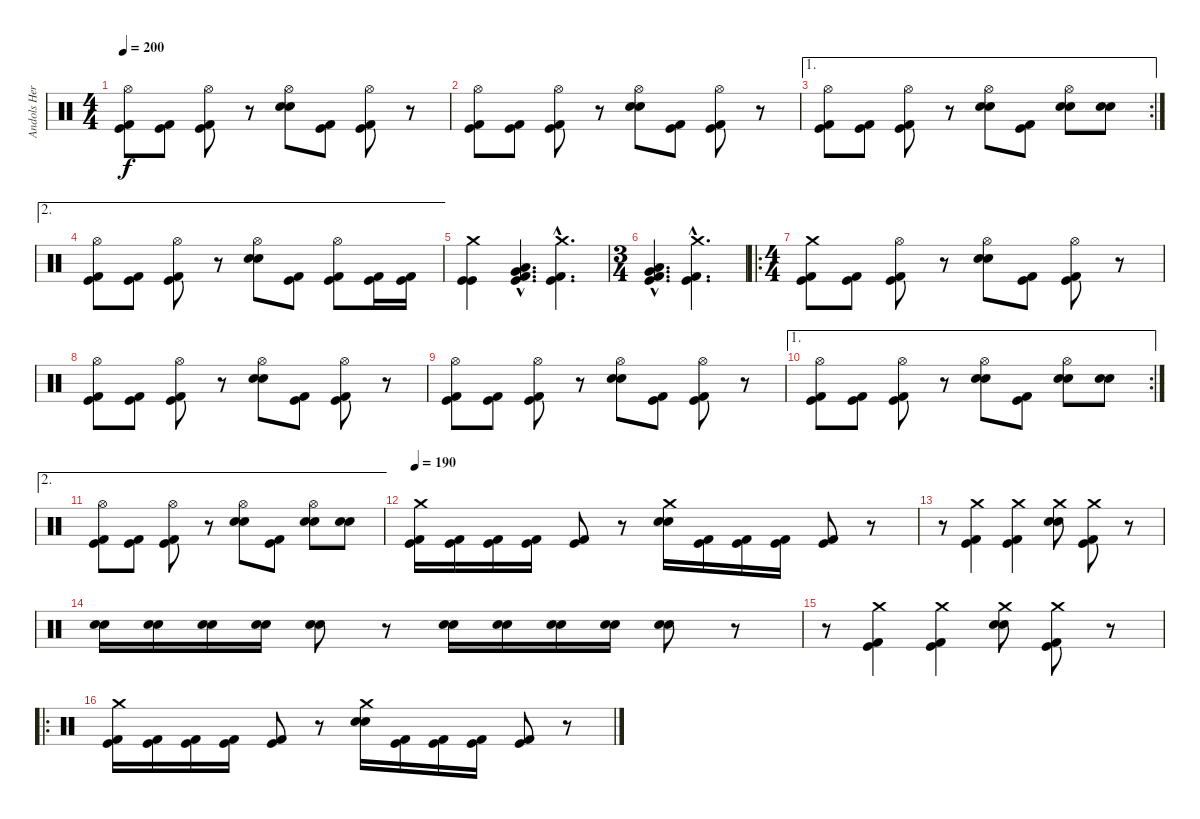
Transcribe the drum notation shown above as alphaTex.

\track ("Andols Herrick" "Andols Her") {instrument percussion}
\staff {score}
\articulation defaults
\ts (4 4)
\tempo 200
\clef neutral
\ks c
("Hi-Hat (open)" "Kick (hit) 2" "Kick (hit)").8{dy f} ("Kick (hit) 2" "Kick (hit)").8 ("Hi-Hat (open)" "Kick (hit) 2" "Kick (hit)").8 r.8 ("Hi-Hat (open)" "Electric Snare (hit)" "Snare (hit) 2").8 ("Kick (hit) 2" "Kick (hit)").8 ("Hi-Hat (open)" "Kick (hit) 2" "Kick (hit)").8 r.8 |
("Hi-Hat (open)" "Kick (hit) 2" "Kick (hit)").8 ("Kick (hit) 2" "Kick (hit)").8 ("Hi-Hat (open)" "Kick (hit) 2" "Kick (hit)").8 r.8 ("Hi-Hat (open)" "Electric Snare (hit)" "Snare (hit) 2").8 ("Kick (hit) 2" "Kick (hit)").8 ("Hi-Hat (open)" "Kick (hit) 2" "Kick (hit)").8 r.8 |
\ae 1
\rc 2
("Hi-Hat (open)" "Kick (hit) 2" "Kick (hit)").8 ("Kick (hit) 2" "Kick (hit)").8 ("Hi-Hat (open)" "Kick (hit) 2" "Kick (hit)").8 r.8 ("Hi-Hat (open)" "Electric Snare (hit)" "Snare (hit) 2").8 ("Kick (hit) 2" "Kick (hit)").8 ("Hi-Hat (open)" "Electric Snare (hit)" "Snare (hit) 2").8 ("Electric Snare (hit)" "Snare (hit) 2").8 |
\ae 2
("Hi-Hat (open)" "Kick (hit) 2" "Kick (hit)").8 ("Kick (hit) 2" "Kick (hit)").8 ("Hi-Hat (open)" "Kick (hit) 2" "Kick (hit)").8 r.8 ("Hi-Hat (open)" "Electric Snare (hit)" "Snare (hit) 2").8 ("Kick (hit) 2" "Kick (hit)").8 ("Hi-Hat (open)" "Kick (hit) 2" "Kick (hit)").8 ("Kick (hit) 2" "Kick (hit)").16 ("Kick (hit) 2" "Kick (hit)").16 |
("Crash medium (hit)" "Kick (hit)" "Kick (hit)").4 ("Low Tom (hit)"{hac} "Very Low Tom (hit)"{hac} "Kick (hit) 2"{hac} "Kick (hit)"{hac}).4{d} ("Crash medium (hit)"{hac} "Kick (hit) 2"{hac} "Kick (hit)"{hac}).4{d} |
\ts (3 4)
("Low Tom (hit)"{hac} "Very Low Tom (hit)"{hac} "Kick (hit) 2"{hac} "Kick (hit)"{hac}).4{d} ("Crash medium (hit)"{hac} "Kick (hit) 2"{hac} "Kick (hit)"{hac}).4{d} |
\ro
\ts (4 4)
("Crash medium (hit)" "Kick (hit) 2" "Kick (hit)").8 ("Kick (hit) 2" "Kick (hit)").8 ("Hi-Hat (open)" "Kick (hit) 2" "Kick (hit)").8 r.8 ("Hi-Hat (open)" "Electric Snare (hit)" "Snare (hit) 2").8 ("Kick (hit) 2" "Kick (hit)").8 ("Hi-Hat (open)" "Kick (hit) 2" "Kick (hit)").8 r.8 |
("Hi-Hat (open)" "Kick (hit) 2" "Kick (hit)").8 ("Kick (hit) 2" "Kick (hit)").8 ("Hi-Hat (open)" "Kick (hit) 2" "Kick (hit)").8 r.8 ("Hi-Hat (open)" "Electric Snare (hit)" "Snare (hit) 2").8 ("Kick (hit) 2" "Kick (hit)").8 ("Hi-Hat (open)" "Kick (hit) 2" "Kick (hit)").8 r.8 |
("Hi-Hat (open)" "Kick (hit) 2" "Kick (hit)").8 ("Kick (hit) 2" "Kick (hit)").8 ("Hi-Hat (open)" "Kick (hit) 2" "Kick (hit)").8 r.8 ("Hi-Hat (open)" "Electric Snare (hit)" "Snare (hit) 2").8 ("Kick (hit) 2" "Kick (hit)").8 ("Hi-Hat (open)" "Kick (hit) 2" "Kick (hit)").8 r.8 |
\ae 1
\rc 2
("Hi-Hat (open)" "Kick (hit) 2" "Kick (hit)").8 ("Kick (hit) 2" "Kick (hit)").8 ("Hi-Hat (open)" "Kick (hit) 2" "Kick (hit)").8 r.8 ("Hi-Hat (open)" "Electric Snare (hit)" "Snare (hit) 2").8 ("Kick (hit) 2" "Kick (hit)").8 ("Hi-Hat (open)" "Electric Snare (hit)" "Snare (hit) 2").8 ("Electric Snare (hit)" "Snare (hit) 2").8 |
\ae 2
("Hi-Hat (open)" "Kick (hit) 2" "Kick (hit)").8 ("Kick (hit) 2" "Kick (hit)").8 ("Hi-Hat (open)" "Kick (hit) 2" "Kick (hit)").8 r.8 ("Hi-Hat (open)" "Electric Snare (hit)" "Snare (hit) 2").8 ("Kick (hit) 2" "Kick (hit)").8 ("Hi-Hat (open)" "Electric Snare (hit)" "Snare (hit) 2").8 ("Electric Snare (hit)" "Snare (hit) 2").8 |
\tempo 190
("Crash medium (hit)" "Kick (hit) 2" "Kick (hit)").16 ("Kick (hit) 2" "Kick (hit)").16 ("Kick (hit) 2" "Kick (hit)").16 ("Kick (hit) 2" "Kick (hit)").16 ("Kick (hit) 2" "Kick (hit)").8 r.8 ("Crash medium (hit)" "Electric Snare (hit)" "Snare (hit) 2").16 ("Kick (hit) 2" "Kick (hit)").16 ("Kick (hit) 2" "Kick (hit)").16 ("Kick (hit) 2" "Kick (hit)").16 ("Kick (hit) 2" "Kick (hit)").8 r.8 |
r.8 ("Crash medium (hit)" "Kick (hit) 2" "Kick (hit)").4 ("Crash medium (hit)" "Kick (hit) 2" "Kick (hit)").4 ("Crash medium (hit)" "Electric Snare (hit)" "Snare (hit) 2").8 ("Crash medium (hit)" "Kick (hit) 2" "Kick (hit)").8 r.8 |
("Electric Snare (hit)" "Snare (hit) 2").16 ("Electric Snare (hit)" "Snare (hit) 2").16 ("Electric Snare (hit)" "Snare (hit) 2").16 ("Electric Snare (hit)" "Snare (hit) 2").16 ("Electric Snare (hit)" "Snare (hit) 2").8 r.8 ("Electric Snare (hit)" "Snare (hit) 2").16 ("Electric Snare (hit)" "Snare (hit) 2").16 ("Electric Snare (hit)" "Snare (hit) 2").16 ("Electric Snare (hit)" "Snare (hit) 2").16 ("Electric Snare (hit)" "Snare (hit) 2").8 r.8 |
r.8 ("Crash medium (hit)" "Kick (hit) 2" "Kick (hit)").4 ("Crash medium (hit)" "Kick (hit) 2" "Kick (hit)").4 ("Crash medium (hit)" "Electric Snare (hit)" "Snare (hit) 2").8 ("Crash medium (hit)" "Kick (hit) 2" "Kick (hit)").8 r.8 |
\ro
("Crash medium (hit)" "Kick (hit) 2" "Kick (hit)").16 ("Kick (hit) 2" "Kick (hit)").16 ("Kick (hit) 2" "Kick (hit)").16 ("Kick (hit) 2" "Kick (hit)").16 ("Kick (hit) 2" "Kick (hit)").8 r.8 ("Crash medium (hit)" "Snare (hit) 2" "Snare (hit) 2").16 ("Kick (hit) 2" "Kick (hit)").16 ("Kick (hit) 2" "Kick (hit)").16 ("Kick (hit) 2" "Kick (hit)").16 ("Kick (hit) 2" "Kick (hit)").8 r.8
